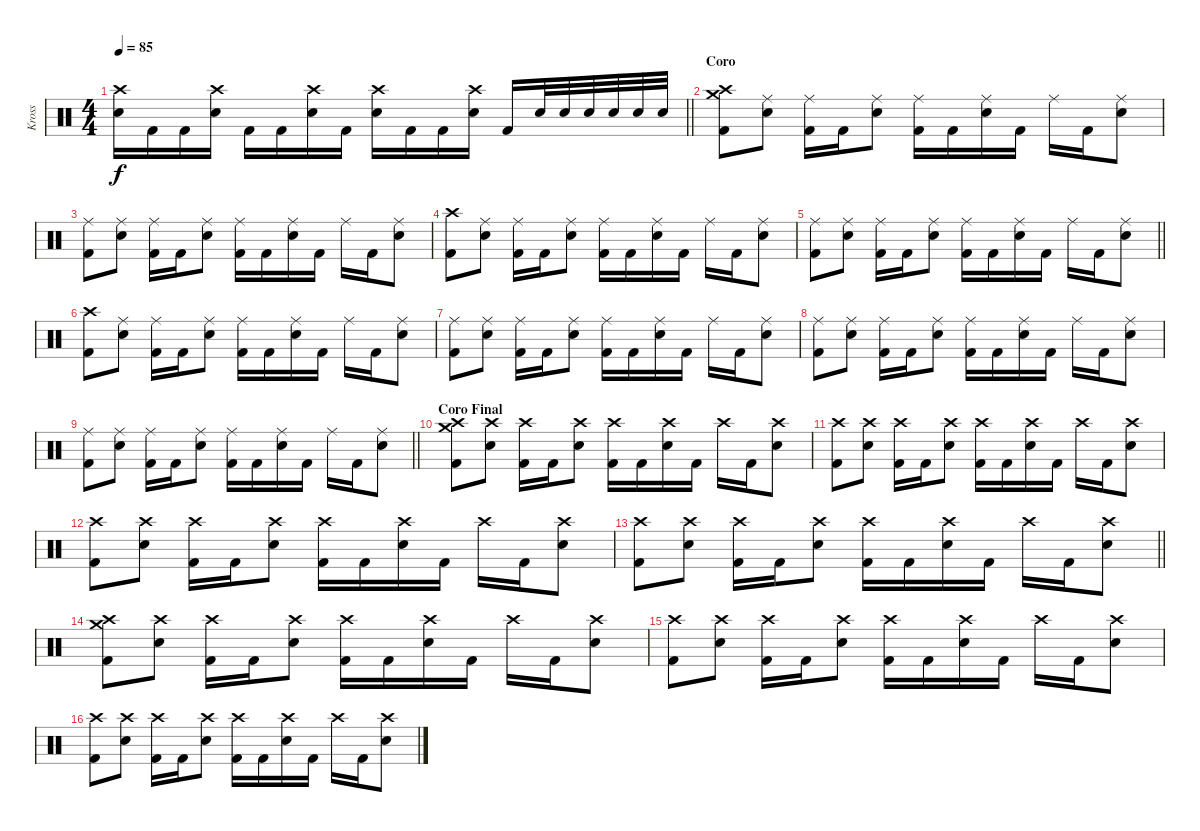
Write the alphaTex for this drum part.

\track ("Kross" "Kross") {instrument percussion}
\staff
\articulation defaults
\ts (4 4)
\tempo 85
\clef neutral
\barLineRight lightlight
\ks c
("Crash high (hit)" "Electric Snare (hit)").16{dy f} "Kick (hit) 2".16 "Kick (hit) 2".16 ("Crash high (hit)" "Electric Snare (hit)").16 "Kick (hit) 2".16 "Kick (hit) 2".16 ("Crash high (hit)" "Electric Snare (hit)").16 "Kick (hit) 2".16 ("Crash high (hit)" "Electric Snare (hit)").16 "Kick (hit) 2".16 "Kick (hit) 2".16 ("Crash high (hit)" "Electric Snare (hit)").16 "Kick (hit) 2".16 "Electric Snare (hit)".32 "Electric Snare (hit)".32 "Electric Snare (hit)".32 "Electric Snare (hit)".32 "Electric Snare (hit)".32 "Electric Snare (hit)".32 |
\section ("" "Coro")
("Crash medium (hit)" "Crash high (hit)" "Kick (hit) 2").8 ("Ride (middle)" "Electric Snare (hit)").8 ("Ride (middle)" "Kick (hit) 2").16 "Kick (hit) 2".16 ("Ride (middle)" "Electric Snare (hit)").8 ("Ride (middle)" "Kick (hit) 2").16 "Kick (hit) 2".16 ("Ride (middle)" "Electric Snare (hit)").16 "Kick (hit) 2".16 "Ride (middle)".16 "Kick (hit) 2".16 ("Ride (middle)" "Electric Snare (hit)").8 |
("Ride (middle)" "Kick (hit) 2").8 ("Ride (middle)" "Electric Snare (hit)").8 ("Ride (middle)" "Kick (hit) 2").16 "Kick (hit) 2".16 ("Ride (middle)" "Electric Snare (hit)").8 ("Ride (middle)" "Kick (hit) 2").16 "Kick (hit) 2".16 ("Ride (middle)" "Electric Snare (hit)").16 "Kick (hit) 2".16 "Ride (middle)".16 "Kick (hit) 2".16 ("Ride (middle)" "Electric Snare (hit)").8 |
("Crash high (hit)" "Kick (hit) 2").8 ("Ride (middle)" "Electric Snare (hit)").8 ("Ride (middle)" "Kick (hit) 2").16 "Kick (hit) 2".16 ("Ride (middle)" "Electric Snare (hit)").8 ("Ride (middle)" "Kick (hit) 2").16 "Kick (hit) 2".16 ("Ride (middle)" "Electric Snare (hit)").16 "Kick (hit) 2".16 "Ride (middle)".16 "Kick (hit) 2".16 ("Ride (middle)" "Electric Snare (hit)").8 |
\barLineRight lightlight
("Ride (middle)" "Kick (hit) 2").8 ("Ride (middle)" "Electric Snare (hit)").8 ("Ride (middle)" "Kick (hit) 2").16 "Kick (hit) 2".16 ("Ride (middle)" "Electric Snare (hit)").8 ("Ride (middle)" "Kick (hit) 2").16 "Kick (hit) 2".16 ("Ride (middle)" "Electric Snare (hit)").16 "Kick (hit) 2".16 "Ride (middle)".16 "Kick (hit) 2".16 ("Ride (middle)" "Electric Snare (hit)").8 |
("Crash high (hit)" "Kick (hit) 2").8 ("Ride (middle)" "Electric Snare (hit)").8 ("Ride (middle)" "Kick (hit) 2").16 "Kick (hit) 2".16 ("Ride (middle)" "Electric Snare (hit)").8 ("Ride (middle)" "Kick (hit) 2").16 "Kick (hit) 2".16 ("Ride (middle)" "Electric Snare (hit)").16 "Kick (hit) 2".16 "Ride (middle)".16 "Kick (hit) 2".16 ("Ride (middle)" "Electric Snare (hit)").8 |
("Ride (middle)" "Kick (hit) 2").8 ("Ride (middle)" "Electric Snare (hit)").8 ("Ride (middle)" "Kick (hit) 2").16 "Kick (hit) 2".16 ("Ride (middle)" "Electric Snare (hit)").8 ("Ride (middle)" "Kick (hit) 2").16 "Kick (hit) 2".16 ("Ride (middle)" "Electric Snare (hit)").16 "Kick (hit) 2".16 "Ride (middle)".16 "Kick (hit) 2".16 ("Ride (middle)" "Electric Snare (hit)").8 |
("Ride (middle)" "Kick (hit) 2").8 ("Ride (middle)" "Electric Snare (hit)").8 ("Ride (middle)" "Kick (hit) 2").16 "Kick (hit) 2".16 ("Ride (middle)" "Electric Snare (hit)").8 ("Ride (middle)" "Kick (hit) 2").16 "Kick (hit) 2".16 ("Ride (middle)" "Electric Snare (hit)").16 "Kick (hit) 2".16 "Ride (middle)".16 "Kick (hit) 2".16 ("Ride (middle)" "Electric Snare (hit)").8 |
\barLineRight lightlight
("Ride (middle)" "Kick (hit) 2").8 ("Ride (middle)" "Electric Snare (hit)").8 ("Ride (middle)" "Kick (hit) 2").16 "Kick (hit) 2".16 ("Ride (middle)" "Electric Snare (hit)").8 ("Ride (middle)" "Kick (hit) 2").16 "Kick (hit) 2".16 ("Ride (middle)" "Electric Snare (hit)").16 "Kick (hit) 2".16 "Ride (middle)".16 "Kick (hit) 2".16 ("Ride (middle)" "Electric Snare (hit)").8 |
\section ("" "Coro Final")
("Crash medium (hit)" "Crash high (hit)" "Kick (hit) 2").8 ("Crash high (hit)" "Electric Snare (hit)").8 ("Crash high (hit)" "Kick (hit) 2").16 "Kick (hit) 2".16 ("Crash high (hit)" "Electric Snare (hit)").8 ("Crash high (hit)" "Kick (hit) 2").16 "Kick (hit) 2".16 ("Crash high (hit)" "Electric Snare (hit)").16 "Kick (hit) 2".16 "Crash high (hit)".16 "Kick (hit) 2".16 ("Crash high (hit)" "Electric Snare (hit)").8 |
("Crash high (hit)" "Kick (hit) 2").8 ("Crash high (hit)" "Electric Snare (hit)").8 ("Crash high (hit)" "Kick (hit) 2").16 "Kick (hit) 2".16 ("Crash high (hit)" "Electric Snare (hit)").8 ("Crash high (hit)" "Kick (hit) 2").16 "Kick (hit) 2".16 ("Crash high (hit)" "Electric Snare (hit)").16 "Kick (hit) 2".16 "Crash high (hit)".16 "Kick (hit) 2".16 ("Crash high (hit)" "Electric Snare (hit)").8 |
("Crash high (hit)" "Kick (hit) 2").8 ("Crash high (hit)" "Electric Snare (hit)").8 ("Crash high (hit)" "Kick (hit) 2").16 "Kick (hit) 2".16 ("Crash high (hit)" "Electric Snare (hit)").8 ("Crash high (hit)" "Kick (hit) 2").16 "Kick (hit) 2".16 ("Crash high (hit)" "Electric Snare (hit)").16 "Kick (hit) 2".16 "Crash high (hit)".16 "Kick (hit) 2".16 ("Crash high (hit)" "Electric Snare (hit)").8 |
\barLineRight lightlight
("Crash high (hit)" "Kick (hit) 2").8 ("Crash high (hit)" "Electric Snare (hit)").8 ("Crash high (hit)" "Kick (hit) 2").16 "Kick (hit) 2".16 ("Crash high (hit)" "Electric Snare (hit)").8 ("Crash high (hit)" "Kick (hit) 2").16 "Kick (hit) 2".16 ("Crash high (hit)" "Electric Snare (hit)").16 "Kick (hit) 2".16 "Crash high (hit)".16 "Kick (hit) 2".16 ("Crash high (hit)" "Electric Snare (hit)").8 |
("Crash medium (hit)" "Crash high (hit)" "Kick (hit) 2").8 ("Crash high (hit)" "Electric Snare (hit)").8 ("Crash high (hit)" "Kick (hit) 2").16 "Kick (hit) 2".16 ("Crash high (hit)" "Electric Snare (hit)").8 ("Crash high (hit)" "Kick (hit) 2").16 "Kick (hit) 2".16 ("Crash high (hit)" "Electric Snare (hit)").16 "Kick (hit) 2".16 "Crash high (hit)".16 "Kick (hit) 2".16 ("Crash high (hit)" "Electric Snare (hit)").8 |
("Crash high (hit)" "Kick (hit) 2").8 ("Crash high (hit)" "Electric Snare (hit)").8 ("Crash high (hit)" "Kick (hit) 2").16 "Kick (hit) 2".16 ("Crash high (hit)" "Electric Snare (hit)").8 ("Crash high (hit)" "Kick (hit) 2").16 "Kick (hit) 2".16 ("Crash high (hit)" "Electric Snare (hit)").16 "Kick (hit) 2".16 "Crash high (hit)".16 "Kick (hit) 2".16 ("Crash high (hit)" "Electric Snare (hit)").8 |
("Crash high (hit)" "Kick (hit) 2").8 ("Crash high (hit)" "Electric Snare (hit)").8 ("Crash high (hit)" "Kick (hit) 2").16 "Kick (hit) 2".16 ("Crash high (hit)" "Electric Snare (hit)").8 ("Crash high (hit)" "Kick (hit) 2").16 "Kick (hit) 2".16 ("Crash high (hit)" "Electric Snare (hit)").16 "Kick (hit) 2".16 "Crash high (hit)".16 "Kick (hit) 2".16 ("Crash high (hit)" "Electric Snare (hit)").8
